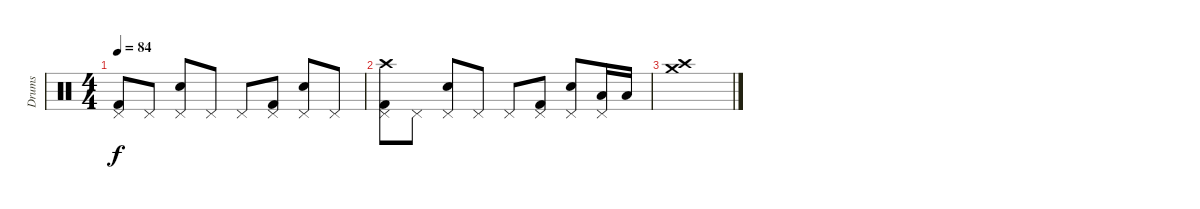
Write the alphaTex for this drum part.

\track ("Drums" "Drums") {instrument percussion}
\staff {score}
\articulation defaults
\ts (4 4)
\tempo 84
\clef neutral
\ks c
("Pedal Hi-Hat (hit)" "Kick (hit) 2").8{dy f} "Pedal Hi-Hat (hit)".8 ("Pedal Hi-Hat (hit)" "Electric Snare (hit)").8 "Pedal Hi-Hat (hit)".8 "Pedal Hi-Hat (hit)".8 ("Pedal Hi-Hat (hit)" "Kick (hit) 2").8 ("Pedal Hi-Hat (hit)" "Electric Snare (hit)").8 "Pedal Hi-Hat (hit)".8 |
("Crash high (hit)" "Pedal Hi-Hat (hit)" "Kick (hit) 2").8 "Pedal Hi-Hat (hit)".8 ("Pedal Hi-Hat (hit)" "Electric Snare (hit)").8 "Pedal Hi-Hat (hit)".8 "Pedal Hi-Hat (hit)".8 ("Pedal Hi-Hat (hit)" "Kick (hit) 2").8 ("Pedal Hi-Hat (hit)" "Electric Snare (hit)").8 ("Pedal Hi-Hat (hit)" "Low Tom (hit)").16 "Low Tom (hit)".16 |
("Crash high (hit)" "Crash medium (hit)").1
